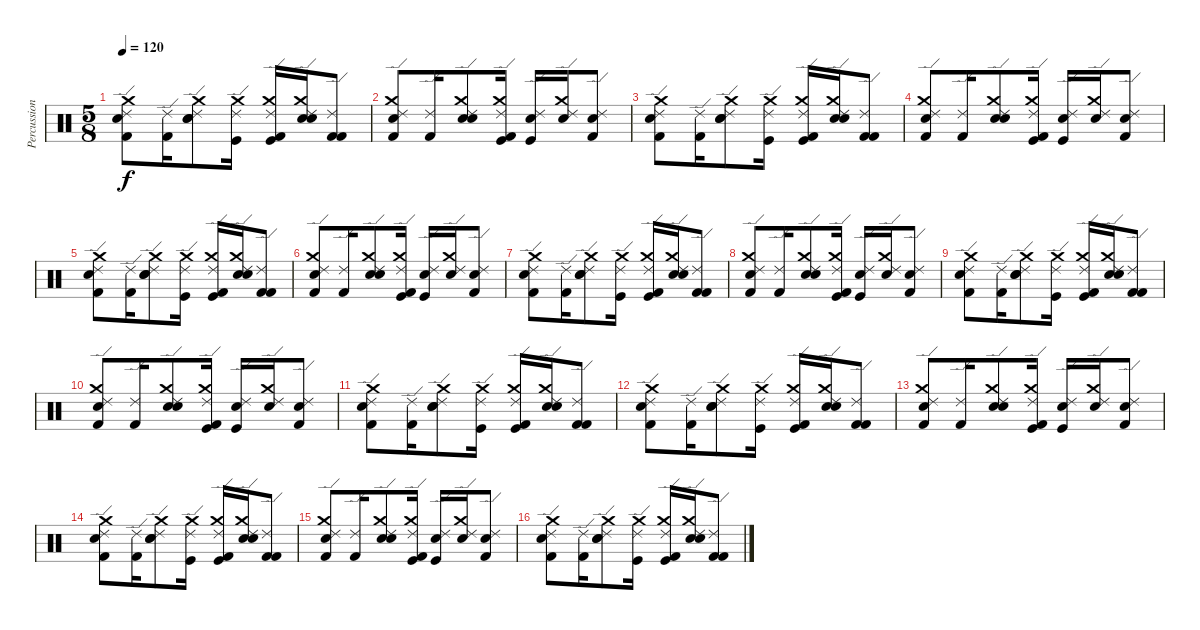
\track ("Percussion" "Percussion") {instrument percussion}
\staff {score}
\articulation defaults
\ts (5 8)
\tempo 120
\clef neutral
\ks c
("Electric Snare (hit)" "Kick (hit) 2" "Crash medium (hit)" "Ride (edge) 2").8{dy f} ("Kick (hit) 2" "Ride (edge) 2").16 ("Electric Snare (hit)" "Crash medium (hit)" "Electric Snare (hit)" "Ride (edge) 2").8 ("Crash medium (hit)" "Kick (hit)" "Ride (edge) 2").16 ("Crash medium (hit)" "Kick (hit) 2" "Kick (hit)" "Ride (edge) 2").16 ("Electric Snare (hit)" "Crash medium (hit)" "Electric Snare (hit)" "Ride (edge) 2").16 ("Kick (hit) 2" "Kick (hit) 2" "Ride (edge) 2").8 |
("Electric Snare (hit)" "Kick (hit) 2" "Crash medium (hit)" "Ride (edge) 2").8 ("Kick (hit) 2" "Ride (edge) 2").16 ("Electric Snare (hit)" "Crash medium (hit)" "Electric Snare (hit)" "Ride (edge) 2").8 ("Crash medium (hit)" "Kick (hit) 2" "Kick (hit)" "Ride (edge) 2").16 ("Electric Snare (hit)" "Kick (hit)" "Ride (edge) 2").16 ("Crash medium (hit)" "Electric Snare (hit)" "Ride (edge) 2").16 ("Electric Snare (hit)" "Kick (hit) 2" "Ride (edge) 2").8 |
("Electric Snare (hit)" "Kick (hit) 2" "Crash medium (hit)" "Ride (edge) 2").8 ("Kick (hit) 2" "Ride (edge) 2").16 ("Electric Snare (hit)" "Crash medium (hit)" "Electric Snare (hit)" "Ride (edge) 2").8 ("Crash medium (hit)" "Kick (hit)" "Ride (edge) 2").16 ("Crash medium (hit)" "Kick (hit) 2" "Kick (hit)" "Ride (edge) 2").16 ("Electric Snare (hit)" "Crash medium (hit)" "Electric Snare (hit)" "Ride (edge) 2").16 ("Kick (hit) 2" "Kick (hit) 2" "Ride (edge) 2").8 |
("Electric Snare (hit)" "Kick (hit) 2" "Crash medium (hit)" "Ride (edge) 2").8 ("Kick (hit) 2" "Ride (edge) 2").16 ("Electric Snare (hit)" "Crash medium (hit)" "Electric Snare (hit)" "Ride (edge) 2").8 ("Crash medium (hit)" "Kick (hit) 2" "Kick (hit)" "Ride (edge) 2").16 ("Electric Snare (hit)" "Kick (hit)" "Ride (edge) 2").16 ("Crash medium (hit)" "Electric Snare (hit)" "Ride (edge) 2").16 ("Electric Snare (hit)" "Kick (hit) 2" "Ride (edge) 2").8 |
("Electric Snare (hit)" "Kick (hit) 2" "Crash medium (hit)" "Ride (edge) 2").8 ("Kick (hit) 2" "Ride (edge) 2").16 ("Electric Snare (hit)" "Crash medium (hit)" "Electric Snare (hit)" "Ride (edge) 2").8 ("Crash medium (hit)" "Kick (hit)" "Ride (edge) 2").16 ("Crash medium (hit)" "Kick (hit) 2" "Kick (hit)" "Ride (edge) 2").16 ("Electric Snare (hit)" "Crash medium (hit)" "Electric Snare (hit)" "Ride (edge) 2").16 ("Kick (hit) 2" "Kick (hit) 2" "Ride (edge) 2").8 |
("Electric Snare (hit)" "Kick (hit) 2" "Crash medium (hit)" "Ride (edge) 2").8 ("Kick (hit) 2" "Ride (edge) 2").16 ("Electric Snare (hit)" "Crash medium (hit)" "Electric Snare (hit)" "Ride (edge) 2").8 ("Crash medium (hit)" "Kick (hit) 2" "Kick (hit)" "Ride (edge) 2").16 ("Electric Snare (hit)" "Kick (hit)" "Ride (edge) 2").16 ("Crash medium (hit)" "Electric Snare (hit)" "Ride (edge) 2").16 ("Electric Snare (hit)" "Kick (hit) 2" "Ride (edge) 2").8 |
("Electric Snare (hit)" "Kick (hit) 2" "Crash medium (hit)" "Ride (edge) 2").8 ("Kick (hit) 2" "Ride (edge) 2").16 ("Electric Snare (hit)" "Crash medium (hit)" "Electric Snare (hit)" "Ride (edge) 2").8 ("Crash medium (hit)" "Kick (hit)" "Ride (edge) 2").16 ("Crash medium (hit)" "Kick (hit) 2" "Kick (hit)" "Ride (edge) 2").16 ("Electric Snare (hit)" "Crash medium (hit)" "Electric Snare (hit)" "Ride (edge) 2").16 ("Kick (hit) 2" "Kick (hit) 2" "Ride (edge) 2").8 |
("Electric Snare (hit)" "Kick (hit) 2" "Crash medium (hit)" "Ride (edge) 2").8 ("Kick (hit) 2" "Ride (edge) 2").16 ("Electric Snare (hit)" "Crash medium (hit)" "Electric Snare (hit)" "Ride (edge) 2").8 ("Crash medium (hit)" "Kick (hit) 2" "Kick (hit)" "Ride (edge) 2").16 ("Electric Snare (hit)" "Kick (hit)" "Ride (edge) 2").16 ("Crash medium (hit)" "Electric Snare (hit)" "Ride (edge) 2").16 ("Electric Snare (hit)" "Kick (hit) 2" "Ride (edge) 2").8 |
("Electric Snare (hit)" "Kick (hit) 2" "Crash medium (hit)" "Ride (edge) 2").8 ("Kick (hit) 2" "Ride (edge) 2").16 ("Electric Snare (hit)" "Crash medium (hit)" "Electric Snare (hit)" "Ride (edge) 2").8 ("Crash medium (hit)" "Kick (hit)" "Ride (edge) 2").16 ("Crash medium (hit)" "Kick (hit) 2" "Kick (hit)" "Ride (edge) 2").16 ("Electric Snare (hit)" "Crash medium (hit)" "Electric Snare (hit)" "Ride (edge) 2").16 ("Kick (hit) 2" "Kick (hit) 2" "Ride (edge) 2").8 |
("Electric Snare (hit)" "Kick (hit) 2" "Crash medium (hit)" "Ride (edge) 2").8 ("Kick (hit) 2" "Ride (edge) 2").16 ("Electric Snare (hit)" "Crash medium (hit)" "Electric Snare (hit)" "Ride (edge) 2").8 ("Crash medium (hit)" "Kick (hit) 2" "Kick (hit)" "Ride (edge) 2").16 ("Electric Snare (hit)" "Kick (hit)" "Ride (edge) 2").16 ("Crash medium (hit)" "Electric Snare (hit)" "Ride (edge) 2").16 ("Electric Snare (hit)" "Kick (hit) 2" "Ride (edge) 2").8 |
("Electric Snare (hit)" "Kick (hit) 2" "Crash medium (hit)" "Ride (edge) 2").8 ("Kick (hit) 2" "Ride (edge) 2").16 ("Electric Snare (hit)" "Crash medium (hit)" "Electric Snare (hit)" "Ride (edge) 2").8 ("Crash medium (hit)" "Kick (hit)" "Ride (edge) 2").16 ("Crash medium (hit)" "Kick (hit) 2" "Kick (hit)" "Ride (edge) 2").16 ("Electric Snare (hit)" "Crash medium (hit)" "Electric Snare (hit)" "Ride (edge) 2").16 ("Kick (hit) 2" "Kick (hit) 2" "Ride (edge) 2").8 |
("Electric Snare (hit)" "Kick (hit) 2" "Crash medium (hit)" "Ride (edge) 2").8 ("Kick (hit) 2" "Ride (edge) 2").16 ("Electric Snare (hit)" "Crash medium (hit)" "Electric Snare (hit)" "Ride (edge) 2").8 ("Crash medium (hit)" "Kick (hit)" "Ride (edge) 2").16 ("Crash medium (hit)" "Kick (hit) 2" "Kick (hit)" "Ride (edge) 2").16 ("Electric Snare (hit)" "Crash medium (hit)" "Electric Snare (hit)" "Ride (edge) 2").16 ("Kick (hit) 2" "Kick (hit) 2" "Ride (edge) 2").8 |
("Electric Snare (hit)" "Kick (hit) 2" "Crash medium (hit)" "Ride (edge) 2").8 ("Kick (hit) 2" "Ride (edge) 2").16 ("Electric Snare (hit)" "Crash medium (hit)" "Electric Snare (hit)" "Ride (edge) 2").8 ("Crash medium (hit)" "Kick (hit) 2" "Kick (hit)" "Ride (edge) 2").16 ("Electric Snare (hit)" "Kick (hit)" "Ride (edge) 2").16 ("Crash medium (hit)" "Electric Snare (hit)" "Ride (edge) 2").16 ("Electric Snare (hit)" "Kick (hit) 2" "Ride (edge) 2").8 |
("Electric Snare (hit)" "Kick (hit) 2" "Crash medium (hit)" "Ride (edge) 2").8 ("Kick (hit) 2" "Ride (edge) 2").16 ("Electric Snare (hit)" "Crash medium (hit)" "Electric Snare (hit)" "Ride (edge) 2").8 ("Crash medium (hit)" "Kick (hit)" "Ride (edge) 2").16 ("Crash medium (hit)" "Kick (hit) 2" "Kick (hit)" "Ride (edge) 2").16 ("Electric Snare (hit)" "Crash medium (hit)" "Electric Snare (hit)" "Ride (edge) 2").16 ("Kick (hit) 2" "Kick (hit) 2" "Ride (edge) 2").8 |
("Electric Snare (hit)" "Kick (hit) 2" "Crash medium (hit)" "Ride (edge) 2").8 ("Kick (hit) 2" "Ride (edge) 2").16 ("Electric Snare (hit)" "Crash medium (hit)" "Electric Snare (hit)" "Ride (edge) 2").8 ("Crash medium (hit)" "Kick (hit) 2" "Kick (hit)" "Ride (edge) 2").16 ("Electric Snare (hit)" "Kick (hit)" "Ride (edge) 2").16 ("Crash medium (hit)" "Electric Snare (hit)" "Ride (edge) 2").16 ("Electric Snare (hit)" "Kick (hit) 2" "Ride (edge) 2").8 |
("Electric Snare (hit)" "Kick (hit) 2" "Crash medium (hit)" "Ride (edge) 2").8 ("Kick (hit) 2" "Ride (edge) 2").16 ("Electric Snare (hit)" "Crash medium (hit)" "Electric Snare (hit)" "Ride (edge) 2").8 ("Crash medium (hit)" "Kick (hit)" "Ride (edge) 2").16 ("Crash medium (hit)" "Kick (hit) 2" "Kick (hit)" "Ride (edge) 2").16 ("Electric Snare (hit)" "Crash medium (hit)" "Electric Snare (hit)" "Ride (edge) 2").16 ("Kick (hit) 2" "Kick (hit) 2" "Ride (edge) 2").8
